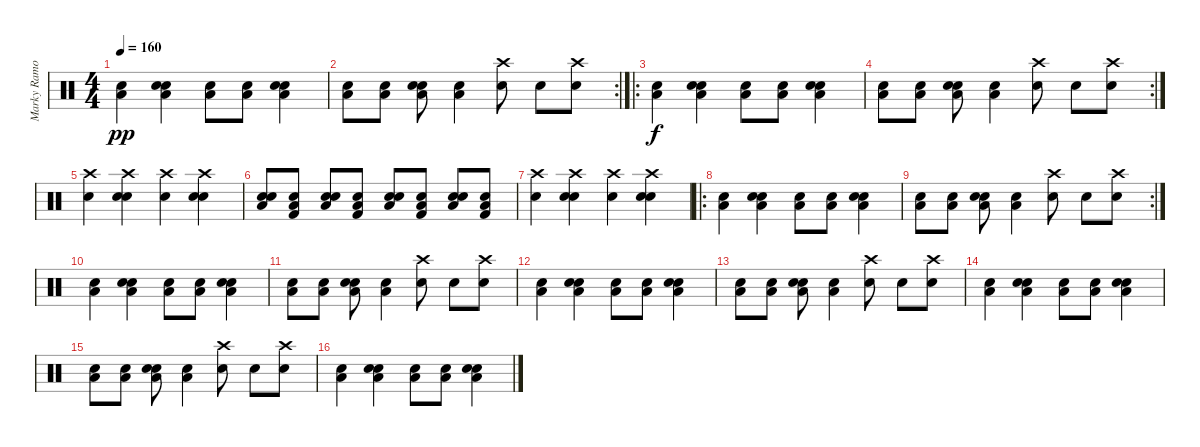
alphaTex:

\track ("Marky Ramone" "Marky Ramo") {instrument percussion}
\staff {score}
\articulation defaults
\ts (4 4)
\tempo 160
\clef neutral
\ks c
("Electric Snare (hit)" "Low Floor Tom (hit)").4{dy pp} ("Hand Clap (hit)" "Electric Snare (hit)" "Low Floor Tom (hit)").4 ("Electric Snare (hit)" "Low Floor Tom (hit)").8 ("Electric Snare (hit)" "Low Floor Tom (hit)").8 ("Hand Clap (hit)" "Electric Snare (hit)" "Low Floor Tom (hit)").4 |
\rc 2
("Electric Snare (hit)" "Low Floor Tom (hit)").8 ("Electric Snare (hit)" "Low Floor Tom (hit)").8 ("Hand Clap (hit)" "Electric Snare (hit)" "Low Floor Tom (hit)").8 ("Electric Snare (hit)" "Low Floor Tom (hit)").4 ("Crash high (hit)" "Electric Snare (hit)").8 "Hand Clap (hit)".8 ("Crash high (hit)" "Electric Snare (hit)").8 |
\ro
("Electric Snare (hit)" "Low Floor Tom (hit)").4{dy f} ("Hand Clap (hit)" "Electric Snare (hit)" "Low Floor Tom (hit)").4 ("Electric Snare (hit)" "Low Floor Tom (hit)").8 ("Electric Snare (hit)" "Low Floor Tom (hit)").8 ("Hand Clap (hit)" "Electric Snare (hit)" "Low Floor Tom (hit)").4 |
\rc 2
("Electric Snare (hit)" "Low Floor Tom (hit)").8 ("Electric Snare (hit)" "Low Floor Tom (hit)").8 ("Hand Clap (hit)" "Electric Snare (hit)" "Low Floor Tom (hit)").8 ("Electric Snare (hit)" "Low Floor Tom (hit)").4 ("Crash high (hit)" "Electric Snare (hit)").8 "Hand Clap (hit)".8 ("Crash high (hit)" "Electric Snare (hit)").8 |
("Crash high (hit)" "Electric Snare (hit)").4 ("Hand Clap (hit)" "Crash high (hit)" "Electric Snare (hit)").4 ("Crash high (hit)" "Electric Snare (hit)").4 ("Hand Clap (hit)" "Crash high (hit)" "Electric Snare (hit)").4 |
("Low Floor Tom (hit)" "Hand Clap (hit)" "Electric Snare (hit)").8 ("Kick (hit) 2" "Low Floor Tom (hit)" "Hand Clap (hit)").8 ("Low Floor Tom (hit)" "Hand Clap (hit)" "Electric Snare (hit)").8 ("Kick (hit) 2" "Low Floor Tom (hit)" "Hand Clap (hit)").8 ("Low Floor Tom (hit)" "Hand Clap (hit)" "Electric Snare (hit)").8 ("Kick (hit) 2" "Low Floor Tom (hit)" "Hand Clap (hit)").8 ("Low Floor Tom (hit)" "Hand Clap (hit)" "Electric Snare (hit)").8 ("Kick (hit) 2" "Low Floor Tom (hit)" "Hand Clap (hit)").8 |
("Crash high (hit)" "Electric Snare (hit)").4 ("Hand Clap (hit)" "Crash high (hit)" "Electric Snare (hit)").4 ("Crash high (hit)" "Electric Snare (hit)").4 ("Hand Clap (hit)" "Crash high (hit)" "Electric Snare (hit)").4 |
\ro
("Electric Snare (hit)" "Low Floor Tom (hit)").4 ("Hand Clap (hit)" "Electric Snare (hit)" "Low Floor Tom (hit)").4 ("Electric Snare (hit)" "Low Floor Tom (hit)").8 ("Electric Snare (hit)" "Low Floor Tom (hit)").8 ("Hand Clap (hit)" "Electric Snare (hit)" "Low Floor Tom (hit)").4 |
\rc 2
("Electric Snare (hit)" "Low Floor Tom (hit)").8 ("Electric Snare (hit)" "Low Floor Tom (hit)").8 ("Hand Clap (hit)" "Electric Snare (hit)" "Low Floor Tom (hit)").8 ("Electric Snare (hit)" "Low Floor Tom (hit)").4 ("Crash high (hit)" "Electric Snare (hit)").8 "Hand Clap (hit)".8 ("Crash high (hit)" "Electric Snare (hit)").8 |
("Electric Snare (hit)" "Low Floor Tom (hit)").4 ("Hand Clap (hit)" "Electric Snare (hit)" "Low Floor Tom (hit)").4 ("Electric Snare (hit)" "Low Floor Tom (hit)").8 ("Electric Snare (hit)" "Low Floor Tom (hit)").8 ("Hand Clap (hit)" "Electric Snare (hit)" "Low Floor Tom (hit)").4 |
("Electric Snare (hit)" "Low Floor Tom (hit)").8 ("Electric Snare (hit)" "Low Floor Tom (hit)").8 ("Hand Clap (hit)" "Electric Snare (hit)" "Low Floor Tom (hit)").8 ("Electric Snare (hit)" "Low Floor Tom (hit)").4 ("Crash high (hit)" "Electric Snare (hit)").8 "Hand Clap (hit)".8 ("Crash high (hit)" "Electric Snare (hit)").8 |
("Electric Snare (hit)" "Low Floor Tom (hit)").4 ("Hand Clap (hit)" "Electric Snare (hit)" "Low Floor Tom (hit)").4 ("Electric Snare (hit)" "Low Floor Tom (hit)").8 ("Electric Snare (hit)" "Low Floor Tom (hit)").8 ("Hand Clap (hit)" "Electric Snare (hit)" "Low Floor Tom (hit)").4 |
("Electric Snare (hit)" "Low Floor Tom (hit)").8 ("Electric Snare (hit)" "Low Floor Tom (hit)").8 ("Hand Clap (hit)" "Electric Snare (hit)" "Low Floor Tom (hit)").8 ("Electric Snare (hit)" "Low Floor Tom (hit)").4 ("Crash high (hit)" "Electric Snare (hit)").8 "Hand Clap (hit)".8 ("Crash high (hit)" "Electric Snare (hit)").8 |
("Electric Snare (hit)" "Low Floor Tom (hit)").4 ("Hand Clap (hit)" "Electric Snare (hit)" "Low Floor Tom (hit)").4 ("Electric Snare (hit)" "Low Floor Tom (hit)").8 ("Electric Snare (hit)" "Low Floor Tom (hit)").8 ("Hand Clap (hit)" "Electric Snare (hit)" "Low Floor Tom (hit)").4 |
("Electric Snare (hit)" "Low Floor Tom (hit)").8 ("Electric Snare (hit)" "Low Floor Tom (hit)").8 ("Hand Clap (hit)" "Electric Snare (hit)" "Low Floor Tom (hit)").8 ("Electric Snare (hit)" "Low Floor Tom (hit)").4 ("Crash high (hit)" "Electric Snare (hit)").8 "Hand Clap (hit)".8 ("Crash high (hit)" "Electric Snare (hit)").8 |
("Electric Snare (hit)" "Low Floor Tom (hit)").4 ("Hand Clap (hit)" "Electric Snare (hit)" "Low Floor Tom (hit)").4 ("Electric Snare (hit)" "Low Floor Tom (hit)").8 ("Electric Snare (hit)" "Low Floor Tom (hit)").8 ("Hand Clap (hit)" "Electric Snare (hit)" "Low Floor Tom (hit)").4
